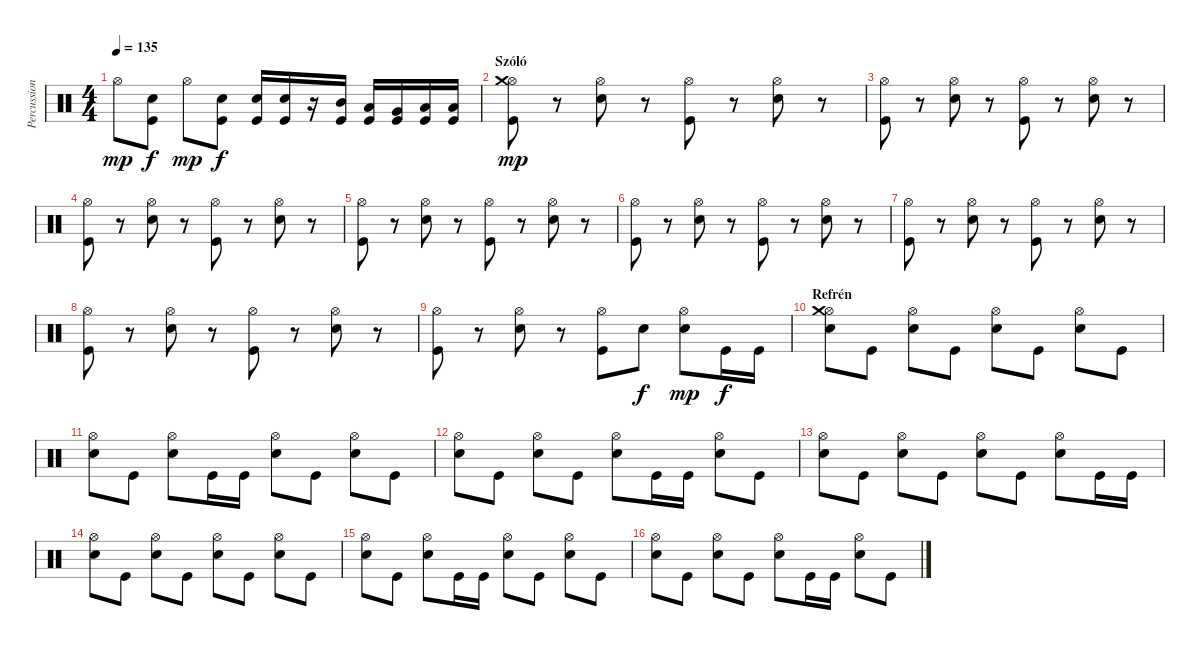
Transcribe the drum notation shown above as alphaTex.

\track ("Percussion" "Percussion") {instrument percussion}
\staff {score}
\articulation defaults
\ts (4 4)
\tempo 135
\clef neutral
\ks c "Hi-Hat (open)".8{dy mp}
("Kick (hit)" "Snare (hit) 2").8{dy f} "Hi-Hat (open)".8{dy mp} ("Kick (hit)" "Snare (hit) 2").8{dy f} ("Kick (hit)" "Snare (hit) 2").16 ("Kick (hit)" "Snare (hit) 2").16 r.16 ("Kick (hit)" "Mid Tom (hit)").16 ("Kick (hit)" "Low Tom (hit)").16 ("Kick (hit)" "Very Low Tom (hit)").16 ("Kick (hit)" "Low Floor Tom (hit)").16 ("Kick (hit)" "Low Floor Tom (hit)").16 |
\section ("" "Szóló")
("Hi-Hat (open)" "Crash medium (hit)" "Kick (hit)").8{dy mp} r.8 ("Hi-Hat (open)" "Snare (hit) 2").8 r.8 ("Hi-Hat (open)" "Kick (hit)").8 r.8 ("Hi-Hat (open)" "Snare (hit) 2").8 r.8 |
("Hi-Hat (open)" "Kick (hit)").8 r.8 ("Hi-Hat (open)" "Snare (hit) 2").8 r.8 ("Hi-Hat (open)" "Kick (hit)").8 r.8 ("Hi-Hat (open)" "Snare (hit) 2").8 r.8 |
("Hi-Hat (open)" "Kick (hit)").8 r.8 ("Hi-Hat (open)" "Snare (hit) 2").8 r.8 ("Hi-Hat (open)" "Kick (hit)").8 r.8 ("Hi-Hat (open)" "Snare (hit) 2").8 r.8 |
("Hi-Hat (open)" "Kick (hit)").8 r.8 ("Hi-Hat (open)" "Snare (hit) 2").8 r.8 ("Hi-Hat (open)" "Kick (hit)").8 r.8 ("Hi-Hat (open)" "Snare (hit) 2").8 r.8 |
("Hi-Hat (open)" "Kick (hit)").8 r.8 ("Hi-Hat (open)" "Snare (hit) 2").8 r.8 ("Hi-Hat (open)" "Kick (hit)").8 r.8 ("Hi-Hat (open)" "Snare (hit) 2").8 r.8 |
("Hi-Hat (open)" "Kick (hit)").8 r.8 ("Hi-Hat (open)" "Snare (hit) 2").8 r.8 ("Hi-Hat (open)" "Kick (hit)").8 r.8 ("Hi-Hat (open)" "Snare (hit) 2").8 r.8 |
("Hi-Hat (open)" "Kick (hit)").8 r.8 ("Hi-Hat (open)" "Snare (hit) 2").8 r.8 ("Hi-Hat (open)" "Kick (hit)").8 r.8 ("Hi-Hat (open)" "Snare (hit) 2").8 r.8 |
("Hi-Hat (open)" "Kick (hit)").8 r.8 ("Hi-Hat (open)" "Snare (hit) 2").8 r.8 ("Hi-Hat (open)" "Kick (hit)").8 "Snare (hit) 2".8{dy f} ("Hi-Hat (open)" "Snare (hit) 2").8{dy mp} "Kick (hit)".16{dy f} "Kick (hit)".16 |
\section ("" "Refrén")
("Hi-Hat (open)" "Crash medium (hit)" "Snare (hit) 2").8 "Kick (hit)".8 ("Hi-Hat (open)" "Snare (hit) 2").8 "Kick (hit)".8 ("Hi-Hat (open)" "Snare (hit) 2").8 "Kick (hit)".8 ("Hi-Hat (open)" "Snare (hit) 2").8 "Kick (hit)".8 |
("Hi-Hat (open)" "Snare (hit) 2").8 "Kick (hit)".8 ("Hi-Hat (open)" "Snare (hit) 2").8 "Kick (hit)".16 "Kick (hit)".16 ("Hi-Hat (open)" "Snare (hit) 2").8 "Kick (hit)".8 ("Hi-Hat (open)" "Snare (hit) 2").8 "Kick (hit)".8 |
("Hi-Hat (open)" "Snare (hit) 2").8 "Kick (hit)".8 ("Hi-Hat (open)" "Snare (hit) 2").8 "Kick (hit)".8 ("Hi-Hat (open)" "Snare (hit) 2").8 "Kick (hit)".16 "Kick (hit)".16 ("Hi-Hat (open)" "Snare (hit) 2").8 "Kick (hit)".8 |
("Hi-Hat (open)" "Snare (hit) 2").8 "Kick (hit)".8 ("Hi-Hat (open)" "Snare (hit) 2").8 "Kick (hit)".8 ("Hi-Hat (open)" "Snare (hit) 2").8 "Kick (hit)".8 ("Hi-Hat (open)" "Snare (hit) 2").8 "Kick (hit)".16 "Kick (hit)".16 |
("Hi-Hat (open)" "Snare (hit) 2").8 "Kick (hit)".8 ("Hi-Hat (open)" "Snare (hit) 2").8 "Kick (hit)".8 ("Hi-Hat (open)" "Snare (hit) 2").8 "Kick (hit)".8 ("Hi-Hat (open)" "Snare (hit) 2").8 "Kick (hit)".8 |
("Hi-Hat (open)" "Snare (hit) 2").8 "Kick (hit)".8 ("Hi-Hat (open)" "Snare (hit) 2").8 "Kick (hit)".16 "Kick (hit)".16 ("Hi-Hat (open)" "Snare (hit) 2").8 "Kick (hit)".8 ("Hi-Hat (open)" "Snare (hit) 2").8 "Kick (hit)".8 |
("Hi-Hat (open)" "Snare (hit) 2").8 "Kick (hit)".8 ("Hi-Hat (open)" "Snare (hit) 2").8 "Kick (hit)".8 ("Hi-Hat (open)" "Snare (hit) 2").8 "Kick (hit)".16 "Kick (hit)".16 ("Hi-Hat (open)" "Snare (hit) 2").8 "Kick (hit)".8
